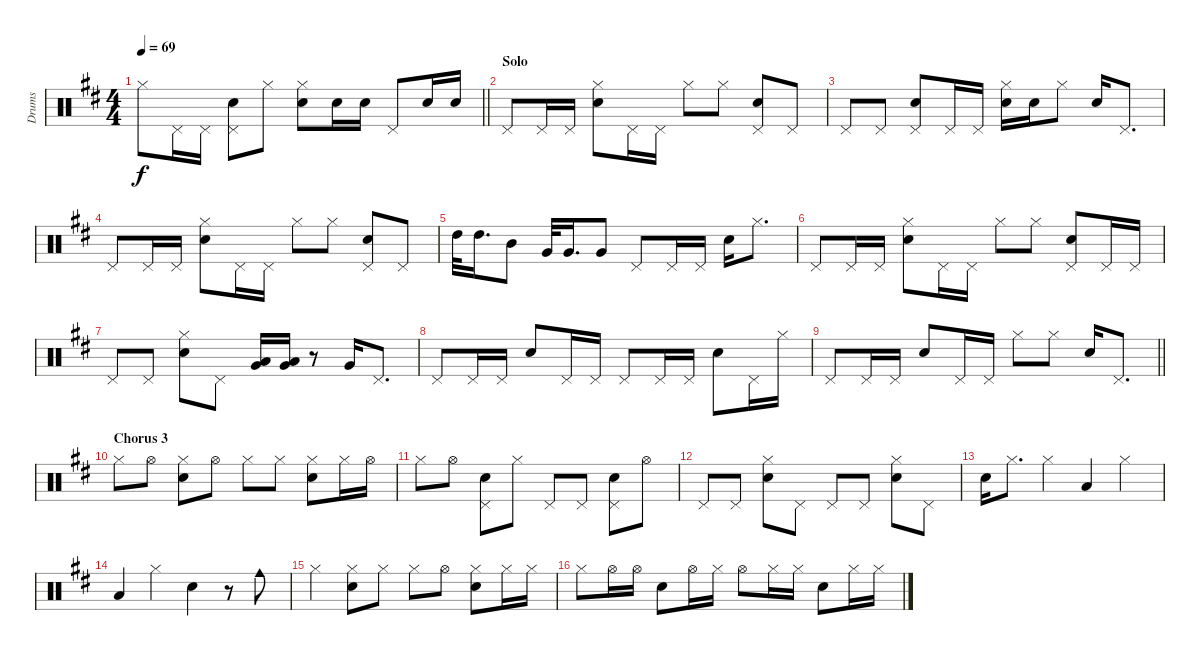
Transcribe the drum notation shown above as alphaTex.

\track ("Drums" "Drums") {instrument percussion}
\staff {score}
\articulation defaults
\ts (4 4)
\tempo 69
\clef neutral
\barLineRight lightlight
\ks d "Hi-Hat (closed)".8{dy f} "Pedal Hi-Hat (hit)".16 "Pedal Hi-Hat (hit)".16
("Pedal Hi-Hat (hit)" "Snare (hit) 2").8 "Hi-Hat (closed)".8 ("Hi-Hat (closed)" "Snare (hit) 2").8 "Snare (hit) 2".16 "Snare (hit) 2".16 "Pedal Hi-Hat (hit)".8 "Snare (hit) 2".16 "Snare (hit) 2".16 |
\section ("" "Solo ")
"Pedal Hi-Hat (hit)".8 "Pedal Hi-Hat (hit)".16 "Pedal Hi-Hat (hit)".16 ("Hi-Hat (closed)" "Snare (hit) 2").8 "Pedal Hi-Hat (hit)".16 "Pedal Hi-Hat (hit)".16 "Hi-Hat (closed)".8 "Hi-Hat (closed)".8 ("Pedal Hi-Hat (hit)" "Snare (hit) 2").8 "Pedal Hi-Hat (hit)".8 |
"Pedal Hi-Hat (hit)".8 "Pedal Hi-Hat (hit)".8 ("Pedal Hi-Hat (hit)" "Snare (hit) 2").8 "Pedal Hi-Hat (hit)".16 "Pedal Hi-Hat (hit)".16 ("Hi-Hat (closed)" "Snare (hit) 2").16 "Snare (hit) 2".16 "Hi-Hat (closed)".8 "Snare (hit) 2".16 "Pedal Hi-Hat (hit)".8{d} |
"Pedal Hi-Hat (hit)".8 "Pedal Hi-Hat (hit)".16 "Pedal Hi-Hat (hit)".16 ("Hi-Hat (closed)" "Snare (hit) 2").8 "Pedal Hi-Hat (hit)".16 "Pedal Hi-Hat (hit)".16 "Hi-Hat (closed)".8 "Hi-Hat (closed)".8 ("Pedal Hi-Hat (hit)" "Snare (hit) 2").8 "Pedal Hi-Hat (hit)".8 |
"High Tom (hit)".32 "High Tom (hit)".16{d} "Mid Tom (hit)".8 "Very Low Tom (hit)".32 "Very Low Tom (hit)".16{d} "Very Low Tom (hit)".8 "Pedal Hi-Hat (hit)".8 "Pedal Hi-Hat (hit)".16 "Pedal Hi-Hat (hit)".16 "Snare (hit) 2".16 "Hi-Hat (closed)".8{d} |
"Pedal Hi-Hat (hit)".8 "Pedal Hi-Hat (hit)".16 "Pedal Hi-Hat (hit)".16 ("Hi-Hat (closed)" "Snare (hit) 2").8 "Pedal Hi-Hat (hit)".16 "Pedal Hi-Hat (hit)".16 "Hi-Hat (closed)".8 "Hi-Hat (closed)".8 ("Pedal Hi-Hat (hit)" "Snare (hit) 2").8 "Pedal Hi-Hat (hit)".16 "Pedal Hi-Hat (hit)".16 |
"Pedal Hi-Hat (hit)".8 "Pedal Hi-Hat (hit)".8 ("Hi-Hat (closed)" "Snare (hit) 2").8 "Pedal Hi-Hat (hit)".8 ("Low Tom (hit)" "Very Low Tom (hit)").16 ("Low Tom (hit)" "Very Low Tom (hit)").16 r.8 "Very Low Tom (hit)".16 "Pedal Hi-Hat (hit)".8{d} |
"Pedal Hi-Hat (hit)".8 "Pedal Hi-Hat (hit)".16 "Pedal Hi-Hat (hit)".16 "Snare (hit) 2".8 "Pedal Hi-Hat (hit)".16 "Pedal Hi-Hat (hit)".16 "Pedal Hi-Hat (hit)".8 "Pedal Hi-Hat (hit)".16 "Pedal Hi-Hat (hit)".16 "Snare (hit) 2".8 "Pedal Hi-Hat (hit)".16 "Hi-Hat (closed)".16 |
\barLineRight lightlight "Pedal Hi-Hat (hit)".8 "Pedal Hi-Hat (hit)".16 "Pedal Hi-Hat (hit)".16 "Snare (hit) 2".8 "Pedal Hi-Hat (hit)".16 "Pedal Hi-Hat (hit)".16 "Hi-Hat (closed)".8 "Hi-Hat (closed)".8 "Snare (hit) 2".16 "Pedal Hi-Hat (hit)".8{d}
|
\section ("" "Chorus 3")
"Hi-Hat (closed)".8 "Hi-Hat (open)".8 ("Hi-Hat (closed)" "Snare (hit) 2").8 "Hi-Hat (open)".8 "Hi-Hat (closed)".8 "Hi-Hat (closed)".8 ("Hi-Hat (closed)" "Snare (hit) 2").8 "Hi-Hat (closed)".16 "Hi-Hat (open)".16 |
"Hi-Hat (closed)".8 "Hi-Hat (open)".8 ("Pedal Hi-Hat (hit)" "Snare (hit) 2").8 "Hi-Hat (closed)".8 "Pedal Hi-Hat (hit)".8 "Pedal Hi-Hat (hit)".8 ("Pedal Hi-Hat (hit)" "Snare (hit) 2").8 "Hi-Hat (open)".8 |
"Pedal Hi-Hat (hit)".8 "Pedal Hi-Hat (hit)".8 ("Hi-Hat (closed)" "Snare (hit) 2").8 "Pedal Hi-Hat (hit)".8 "Pedal Hi-Hat (hit)".8 "Pedal Hi-Hat (hit)".8 ("Hi-Hat (closed)" "Snare (hit) 2").8 "Pedal Hi-Hat (hit)".8 |
"Snare (hit) 2".16 "Hi-Hat (closed)".8{d} "Hi-Hat (closed)".4 "Low Tom (hit)".4 "Hi-Hat (closed)".4 |
"Low Tom (hit)".4 "Hi-Hat (closed)".4 "Snare (hit) 2".4 r.8 "Cowbell medium (hit)".8 |
"Hi-Hat (closed)".4 ("Hi-Hat (closed)" "Snare (hit) 2").8 "Hi-Hat (closed)".8 "Hi-Hat (closed)".8 "Hi-Hat (open)".8 ("Hi-Hat (closed)" "Snare (hit) 2").8 "Hi-Hat (closed)".16 "Hi-Hat (closed)".16 |
"Hi-Hat (closed)".8 "Hi-Hat (open)".16 "Hi-Hat (open)".16 "Snare (hit) 2".8 "Hi-Hat (open)".16 "Hi-Hat (closed)".16 "Hi-Hat (open)".8 "Hi-Hat (closed)".16 "Hi-Hat (closed)".16 "Snare (hit) 2".8 "Hi-Hat (closed)".16 "Hi-Hat (closed)".16
